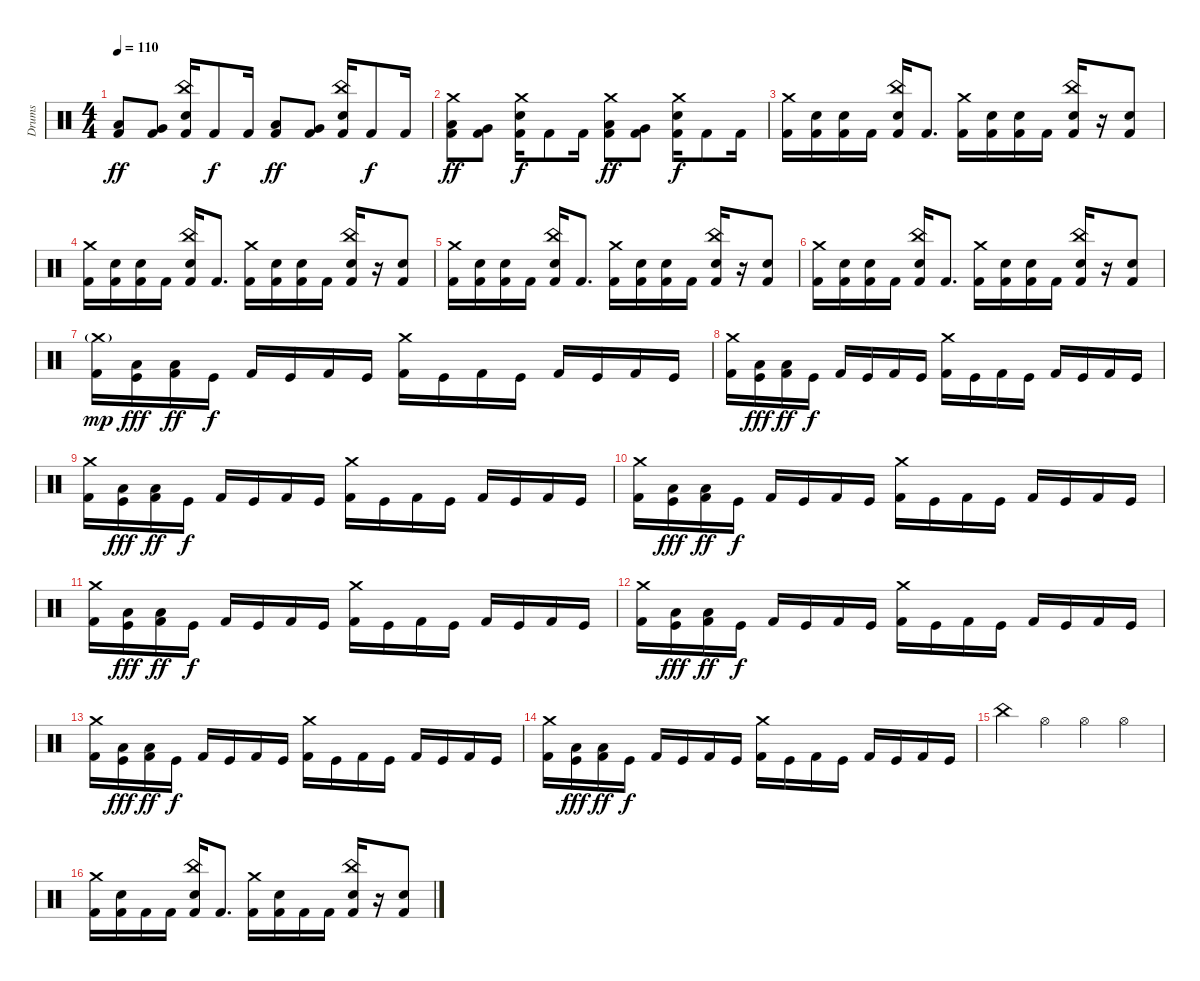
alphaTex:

\track ("Drums" "Drums") {instrument percussion}
\staff {score}
\articulation defaults
\ts (4 4)
\tempo 110
\clef neutral
\ks c
("Low Tom (hit)" "Kick (hit) 2").8{dy ff} ("Very Low Tom (hit)" "Kick (hit) 2").8 ("China (hit)" "Snare (hit) 2" "Kick (hit) 2").16 "Kick (hit) 2".8{dy f} "Kick (hit) 2".16 ("Low Tom (hit)" "Kick (hit) 2").8{dy ff} ("Very Low Tom (hit)" "Kick (hit) 2").8 ("China (hit)" "Snare (hit) 2" "Kick (hit) 2").16 "Kick (hit) 2".8{dy f} "Kick (hit) 2".16 |
("Crash medium (hit)" "Low Tom (hit)" "Kick (hit) 2").8{dy ff} ("Very Low Tom (hit)" "Kick (hit) 2").8 ("Crash medium (hit)" "Snare (hit) 2" "Kick (hit) 2").16{dy f} "Kick (hit) 2".8 "Kick (hit) 2".16 ("Crash medium (hit)" "Low Tom (hit)" "Kick (hit) 2").8{dy ff} ("Very Low Tom (hit)" "Kick (hit) 2").8 ("Crash medium (hit)" "Snare (hit) 2" "Kick (hit) 2").16{dy f} "Kick (hit) 2".8 "Kick (hit) 2".16 |
("Crash medium (hit)" "Kick (hit) 2").16 ("Snare (hit) 2" "Kick (hit) 2").16 ("Snare (hit) 2" "Kick (hit) 2").16 "Kick (hit) 2".16 ("China (hit)" "Snare (hit) 2" "Kick (hit) 2").16 "Kick (hit) 2".8{d} ("Crash medium (hit)" "Kick (hit) 2").16 ("Snare (hit) 2" "Kick (hit) 2").16 ("Snare (hit) 2" "Kick (hit) 2").16 "Kick (hit) 2".16 ("China (hit)" "Snare (hit) 2" "Kick (hit) 2").16 r.16 ("Snare (hit) 2" "Kick (hit) 2").8 |
("Crash medium (hit)" "Kick (hit) 2").16 ("Snare (hit) 2" "Kick (hit) 2").16 ("Snare (hit) 2" "Kick (hit) 2").16 "Kick (hit) 2".16 ("China (hit)" "Snare (hit) 2" "Kick (hit) 2").16 "Kick (hit) 2".8{d} ("Crash medium (hit)" "Kick (hit) 2").16 ("Snare (hit) 2" "Kick (hit) 2").16 ("Snare (hit) 2" "Kick (hit) 2").16 "Kick (hit) 2".16 ("China (hit)" "Snare (hit) 2" "Kick (hit) 2").16 r.16 ("Snare (hit) 2" "Kick (hit) 2").8 |
("Crash medium (hit)" "Kick (hit) 2").16 ("Snare (hit) 2" "Kick (hit) 2").16 ("Snare (hit) 2" "Kick (hit) 2").16 "Kick (hit) 2".16 ("China (hit)" "Snare (hit) 2" "Kick (hit) 2").16 "Kick (hit) 2".8{d} ("Crash medium (hit)" "Kick (hit) 2").16 ("Snare (hit) 2" "Kick (hit) 2").16 ("Snare (hit) 2" "Kick (hit) 2").16 "Kick (hit) 2".16 ("China (hit)" "Snare (hit) 2" "Kick (hit) 2").16 r.16 ("Snare (hit) 2" "Kick (hit) 2").8 |
("Crash medium (hit)" "Kick (hit) 2").16 ("Snare (hit) 2" "Kick (hit) 2").16 ("Snare (hit) 2" "Kick (hit) 2").16 "Kick (hit) 2".16 ("China (hit)" "Snare (hit) 2" "Kick (hit) 2").16 "Kick (hit) 2".8{d} ("Crash medium (hit)" "Kick (hit) 2").16 ("Snare (hit) 2" "Kick (hit) 2").16 ("Snare (hit) 2" "Kick (hit) 2").16 "Kick (hit) 2".16 ("China (hit)" "Snare (hit) 2" "Kick (hit) 2").16 r.16 ("Snare (hit) 2" "Kick (hit) 2").8 |
("Crash medium (hit)"{g} "Kick (hit) 2").16{dy mp} ("Low Tom (hit)" "Kick (hit)").16{dy fff} ("Low Tom (hit)" "Kick (hit) 2").16{dy ff} "Kick (hit)".16{dy f} "Kick (hit) 2".16 "Kick (hit)".16 "Kick (hit) 2".16 "Kick (hit)".16 ("Crash medium (hit)" "Kick (hit) 2").16 "Kick (hit)".16 "Kick (hit) 2".16 "Kick (hit)".16 "Kick (hit) 2".16 "Kick (hit)".16 "Kick (hit) 2".16 "Kick (hit)".16 |
("Crash medium (hit)" "Kick (hit) 2").16 ("Low Tom (hit)" "Kick (hit)").16{dy fff} ("Low Tom (hit)" "Kick (hit) 2").16{dy ff} "Kick (hit)".16{dy f} "Kick (hit) 2".16 "Kick (hit)".16 "Kick (hit) 2".16 "Kick (hit)".16 ("Crash medium (hit)" "Kick (hit) 2").16 "Kick (hit)".16 "Kick (hit) 2".16 "Kick (hit)".16 "Kick (hit) 2".16 "Kick (hit)".16 "Kick (hit) 2".16 "Kick (hit)".16 |
("Crash medium (hit)" "Kick (hit) 2").16 ("Low Tom (hit)" "Kick (hit)").16{dy fff} ("Low Tom (hit)" "Kick (hit) 2").16{dy ff} "Kick (hit)".16{dy f} "Kick (hit) 2".16 "Kick (hit)".16 "Kick (hit) 2".16 "Kick (hit)".16 ("Crash medium (hit)" "Kick (hit) 2").16 "Kick (hit)".16 "Kick (hit) 2".16 "Kick (hit)".16 "Kick (hit) 2".16 "Kick (hit)".16 "Kick (hit) 2".16 "Kick (hit)".16 |
("Crash medium (hit)" "Kick (hit) 2").16 ("Low Tom (hit)" "Kick (hit)").16{dy fff} ("Low Tom (hit)" "Kick (hit) 2").16{dy ff} "Kick (hit)".16{dy f} "Kick (hit) 2".16 "Kick (hit)".16 "Kick (hit) 2".16 "Kick (hit)".16 ("Crash medium (hit)" "Kick (hit) 2").16 "Kick (hit)".16 "Kick (hit) 2".16 "Kick (hit)".16 "Kick (hit) 2".16 "Kick (hit)".16 "Kick (hit) 2".16 "Kick (hit)".16 |
("Crash medium (hit)" "Kick (hit) 2").16 ("Low Tom (hit)" "Kick (hit)").16{dy fff} ("Low Tom (hit)" "Kick (hit) 2").16{dy ff} "Kick (hit)".16{dy f} "Kick (hit) 2".16 "Kick (hit)".16 "Kick (hit) 2".16 "Kick (hit)".16 ("Crash medium (hit)" "Kick (hit) 2").16 "Kick (hit)".16 "Kick (hit) 2".16 "Kick (hit)".16 "Kick (hit) 2".16 "Kick (hit)".16 "Kick (hit) 2".16 "Kick (hit)".16 |
("Crash medium (hit)" "Kick (hit) 2").16 ("Low Tom (hit)" "Kick (hit)").16{dy fff} ("Low Tom (hit)" "Kick (hit) 2").16{dy ff} "Kick (hit)".16{dy f} "Kick (hit) 2".16 "Kick (hit)".16 "Kick (hit) 2".16 "Kick (hit)".16 ("Crash medium (hit)" "Kick (hit) 2").16 "Kick (hit)".16 "Kick (hit) 2".16 "Kick (hit)".16 "Kick (hit) 2".16 "Kick (hit)".16 "Kick (hit) 2".16 "Kick (hit)".16 |
("Crash medium (hit)" "Kick (hit) 2").16 ("Low Tom (hit)" "Kick (hit)").16{dy fff} ("Low Tom (hit)" "Kick (hit) 2").16{dy ff} "Kick (hit)".16{dy f} "Kick (hit) 2".16 "Kick (hit)".16 "Kick (hit) 2".16 "Kick (hit)".16 ("Crash medium (hit)" "Kick (hit) 2").16 "Kick (hit)".16 "Kick (hit) 2".16 "Kick (hit)".16 "Kick (hit) 2".16 "Kick (hit)".16 "Kick (hit) 2".16 "Kick (hit)".16 |
("Crash medium (hit)" "Kick (hit) 2").16 ("Low Tom (hit)" "Kick (hit)").16{dy fff} ("Low Tom (hit)" "Kick (hit) 2").16{dy ff} "Kick (hit)".16{dy f} "Kick (hit) 2".16 "Kick (hit)".16 "Kick (hit) 2".16 "Kick (hit)".16 ("Crash medium (hit)" "Kick (hit) 2").16 "Kick (hit)".16 "Kick (hit) 2".16 "Kick (hit)".16 "Kick (hit) 2".16 "Kick (hit)".16 "Kick (hit) 2".16 "Kick (hit)".16 |
"China (hit)".4 "Hi-Hat (open)".4 "Hi-Hat (open)".4 "Hi-Hat (open)".4 |
("Crash medium (hit)" "Kick (hit) 2").16{volume 13} ("Snare (hit) 2" "Kick (hit) 2").16 "Kick (hit) 2".16 "Kick (hit) 2".16 ("China (hit)" "Snare (hit) 2" "Kick (hit) 2").16 "Kick (hit) 2".8{d} ("Crash medium (hit)" "Kick (hit) 2").16 ("Snare (hit) 2" "Kick (hit) 2").16 "Kick (hit) 2".16 "Kick (hit) 2".16 ("China (hit)" "Snare (hit) 2" "Kick (hit) 2").16 r.16 ("Snare (hit) 2" "Kick (hit) 2").8
